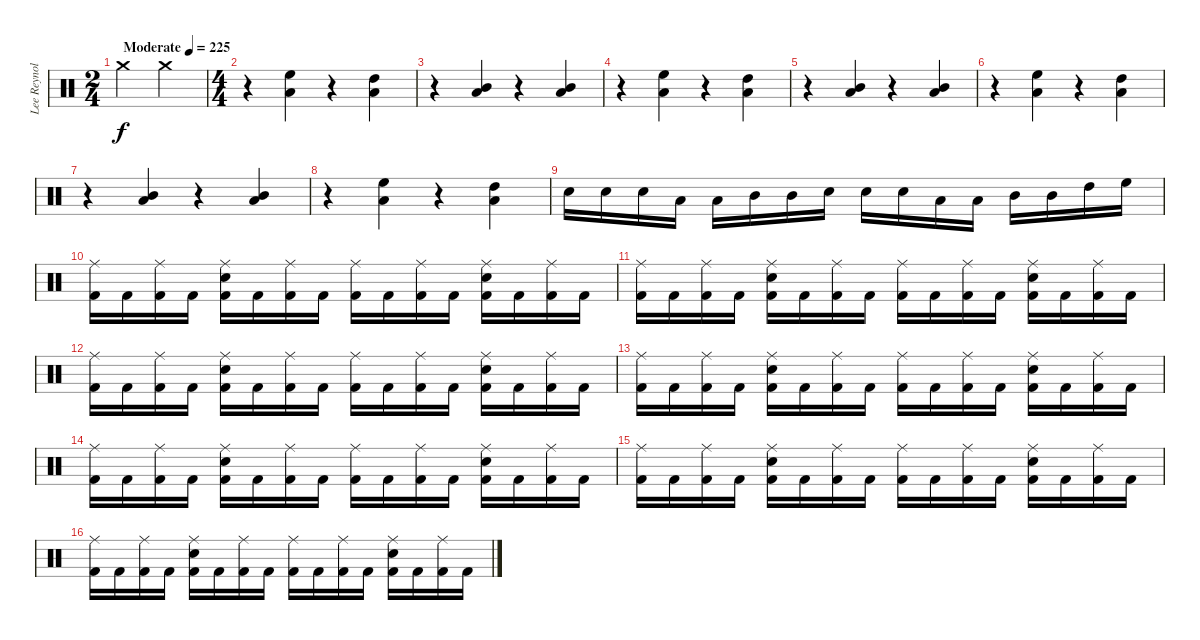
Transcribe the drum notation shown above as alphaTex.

\track ("Lee Reynolds" "Lee Reynol") {instrument percussion}
\staff {score}
\articulation defaults
\ts (2 4)
\tempo (225 "Moderate")
\clef neutral
\ks c "Crash medium (hit)".4{dy f} "Crash medium (hit)".4
|
\ts (4 4)
r.4 ("High Floor Tom (hit)" "Low Tom (hit)").4 r.4 ("High Tom (hit)" "Low Tom (hit)").4 |
r.4 ("Mid Tom (hit)" "Low Tom (hit)").4 r.4 ("Low Tom (hit)" "Mid Tom (hit)").4 |
r.4 ("High Floor Tom (hit)" "Low Tom (hit)").4 r.4 ("High Tom (hit)" "Low Tom (hit)").4 |
r.4 ("Mid Tom (hit)" "Low Tom (hit)").4 r.4 ("Low Tom (hit)" "Mid Tom (hit)").4 |
r.4 ("High Floor Tom (hit)" "Low Tom (hit)").4 r.4 ("High Tom (hit)" "Low Tom (hit)").4 |
r.4 ("Mid Tom (hit)" "Low Tom (hit)").4 r.4 ("Low Tom (hit)" "Mid Tom (hit)").4 |
r.4 ("High Floor Tom (hit)" "Low Tom (hit)").4 r.4 ("High Tom (hit)" "Low Tom (hit)").4 |
"Snare (hit) 2".16 "Snare (hit) 2".16 "Snare (hit) 2".16 "Low Tom (hit)".16 "Low Tom (hit)".16 "Mid Tom (hit)".16 "Mid Tom (hit)".16 "Snare (hit) 2".16 "Snare (hit) 2".16 "Snare (hit) 2".16 "Low Tom (hit)".16 "Low Tom (hit)".16 "Mid Tom (hit)".16 "Mid Tom (hit)".16 "High Tom (hit)".16 "High Floor Tom (hit)".16 |
("Ride (middle)" "Kick (hit) 2").16 "Kick (hit) 2".16 ("Ride (middle)" "Kick (hit) 2").16 "Kick (hit) 2".16 ("Ride (middle)" "Snare (hit) 2" "Kick (hit) 2").16 "Kick (hit) 2".16 ("Ride (middle)" "Kick (hit) 2").16 "Kick (hit) 2".16 ("Ride (middle)" "Kick (hit) 2").16 "Kick (hit) 2".16 ("Ride (middle)" "Kick (hit) 2").16 "Kick (hit) 2".16 ("Ride (middle)" "Snare (hit) 2" "Kick (hit) 2").16 "Kick (hit) 2".16 ("Ride (middle)" "Kick (hit) 2").16 "Kick (hit) 2".16 |
("Ride (middle)" "Kick (hit) 2").16 "Kick (hit) 2".16 ("Ride (middle)" "Kick (hit) 2").16 "Kick (hit) 2".16 ("Ride (middle)" "Snare (hit) 2" "Kick (hit) 2").16 "Kick (hit) 2".16 ("Ride (middle)" "Kick (hit) 2").16 "Kick (hit) 2".16 ("Ride (middle)" "Kick (hit) 2").16 "Kick (hit) 2".16 ("Ride (middle)" "Kick (hit) 2").16 "Kick (hit) 2".16 ("Ride (middle)" "Snare (hit) 2" "Kick (hit) 2").16 "Kick (hit) 2".16 ("Ride (middle)" "Kick (hit) 2").16 "Kick (hit) 2".16 |
("Ride (middle)" "Kick (hit) 2").16 "Kick (hit) 2".16 ("Ride (middle)" "Kick (hit) 2").16 "Kick (hit) 2".16 ("Ride (middle)" "Snare (hit) 2" "Kick (hit) 2").16 "Kick (hit) 2".16 ("Ride (middle)" "Kick (hit) 2").16 "Kick (hit) 2".16 ("Ride (middle)" "Kick (hit) 2").16 "Kick (hit) 2".16 ("Ride (middle)" "Kick (hit) 2").16 "Kick (hit) 2".16 ("Ride (middle)" "Snare (hit) 2" "Kick (hit) 2").16 "Kick (hit) 2".16 ("Ride (middle)" "Kick (hit) 2").16 "Kick (hit) 2".16 |
("Ride (middle)" "Kick (hit) 2").16 "Kick (hit) 2".16 ("Ride (middle)" "Kick (hit) 2").16 "Kick (hit) 2".16 ("Ride (middle)" "Snare (hit) 2" "Kick (hit) 2").16 "Kick (hit) 2".16 ("Ride (middle)" "Kick (hit) 2").16 "Kick (hit) 2".16 ("Ride (middle)" "Kick (hit) 2").16 "Kick (hit) 2".16 ("Ride (middle)" "Kick (hit) 2").16 "Kick (hit) 2".16 ("Ride (middle)" "Snare (hit) 2" "Kick (hit) 2").16 "Kick (hit) 2".16 ("Ride (middle)" "Kick (hit) 2").16 "Kick (hit) 2".16 |
("Ride (middle)" "Kick (hit) 2").16 "Kick (hit) 2".16 ("Ride (middle)" "Kick (hit) 2").16 "Kick (hit) 2".16 ("Ride (middle)" "Snare (hit) 2" "Kick (hit) 2").16 "Kick (hit) 2".16 ("Ride (middle)" "Kick (hit) 2").16 "Kick (hit) 2".16 ("Ride (middle)" "Kick (hit) 2").16 "Kick (hit) 2".16 ("Ride (middle)" "Kick (hit) 2").16 "Kick (hit) 2".16 ("Ride (middle)" "Snare (hit) 2" "Kick (hit) 2").16 "Kick (hit) 2".16 ("Ride (middle)" "Kick (hit) 2").16 "Kick (hit) 2".16 |
("Ride (middle)" "Kick (hit) 2").16 "Kick (hit) 2".16 ("Ride (middle)" "Kick (hit) 2").16 "Kick (hit) 2".16 ("Ride (middle)" "Snare (hit) 2" "Kick (hit) 2").16 "Kick (hit) 2".16 ("Ride (middle)" "Kick (hit) 2").16 "Kick (hit) 2".16 ("Ride (middle)" "Kick (hit) 2").16 "Kick (hit) 2".16 ("Ride (middle)" "Kick (hit) 2").16 "Kick (hit) 2".16 ("Ride (middle)" "Snare (hit) 2" "Kick (hit) 2").16 "Kick (hit) 2".16 ("Ride (middle)" "Kick (hit) 2").16 "Kick (hit) 2".16 |
("Ride (middle)" "Kick (hit) 2").16 "Kick (hit) 2".16 ("Ride (middle)" "Kick (hit) 2").16 "Kick (hit) 2".16 ("Ride (middle)" "Snare (hit) 2" "Kick (hit) 2").16 "Kick (hit) 2".16 ("Ride (middle)" "Kick (hit) 2").16 "Kick (hit) 2".16 ("Ride (middle)" "Kick (hit) 2").16 "Kick (hit) 2".16 ("Ride (middle)" "Kick (hit) 2").16 "Kick (hit) 2".16 ("Ride (middle)" "Snare (hit) 2" "Kick (hit) 2").16 "Kick (hit) 2".16 ("Ride (middle)" "Kick (hit) 2").16 "Kick (hit) 2".16
